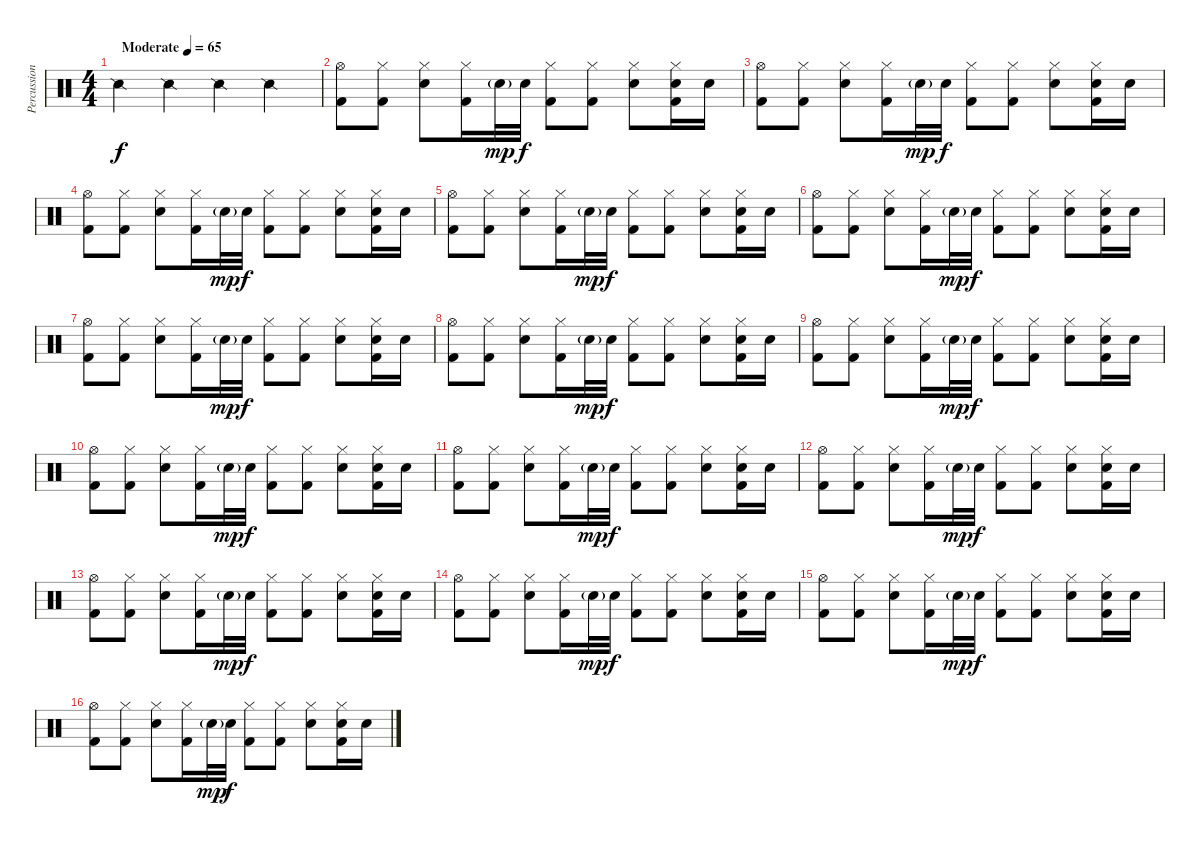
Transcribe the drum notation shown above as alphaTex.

\track ("Percussioni" "Percussion") {instrument percussion}
\staff {score}
\articulation defaults
\ts (4 4)
\tempo (65 "Moderate")
\clef neutral
\ks c "Snare (side stick) 2".4{dy f} "Snare (side stick) 2".4 "Snare (side stick) 2".4 "Snare (side stick) 2".4
|
("Hi-Hat (open)" "Kick (hit) 2").8 ("Hi-Hat (closed)" "Kick (hit) 2").8 ("Electric Snare (hit)" "Hi-Hat (closed)").8 ("Hi-Hat (closed)" "Kick (hit) 2").16 "Electric Snare (hit)"{g}.32{dy mp} "Electric Snare (hit)".32{dy f} ("Kick (hit) 2" "Hi-Hat (closed)").8 ("Hi-Hat (closed)" "Kick (hit) 2").8 ("Electric Snare (hit)" "Hi-Hat (closed)").8 ("Electric Snare (hit)" "Hi-Hat (closed)" "Kick (hit) 2").16 "Electric Snare (hit)".16 |
("Hi-Hat (open)" "Kick (hit) 2").8 ("Hi-Hat (closed)" "Kick (hit) 2").8 ("Electric Snare (hit)" "Hi-Hat (closed)").8 ("Hi-Hat (closed)" "Kick (hit) 2").16 "Electric Snare (hit)"{g}.32{dy mp} "Electric Snare (hit)".32{dy f} ("Kick (hit) 2" "Hi-Hat (closed)").8 ("Hi-Hat (closed)" "Kick (hit) 2").8 ("Electric Snare (hit)" "Hi-Hat (closed)").8 ("Electric Snare (hit)" "Hi-Hat (closed)" "Kick (hit) 2").16 "Electric Snare (hit)".16 |
("Hi-Hat (open)" "Kick (hit) 2").8 ("Hi-Hat (closed)" "Kick (hit) 2").8 ("Electric Snare (hit)" "Hi-Hat (closed)").8 ("Hi-Hat (closed)" "Kick (hit) 2").16 "Electric Snare (hit)"{g}.32{dy mp} "Electric Snare (hit)".32{dy f} ("Kick (hit) 2" "Hi-Hat (closed)").8 ("Hi-Hat (closed)" "Kick (hit) 2").8 ("Electric Snare (hit)" "Hi-Hat (closed)").8 ("Electric Snare (hit)" "Hi-Hat (closed)" "Kick (hit) 2").16 "Electric Snare (hit)".16 |
("Hi-Hat (open)" "Kick (hit) 2").8 ("Hi-Hat (closed)" "Kick (hit) 2").8 ("Electric Snare (hit)" "Hi-Hat (closed)").8 ("Hi-Hat (closed)" "Kick (hit) 2").16 "Electric Snare (hit)"{g}.32{dy mp} "Electric Snare (hit)".32{dy f} ("Kick (hit) 2" "Hi-Hat (closed)").8 ("Hi-Hat (closed)" "Kick (hit) 2").8 ("Electric Snare (hit)" "Hi-Hat (closed)").8 ("Electric Snare (hit)" "Hi-Hat (closed)" "Kick (hit) 2").16 "Electric Snare (hit)".16 |
("Hi-Hat (open)" "Kick (hit) 2").8 ("Hi-Hat (closed)" "Kick (hit) 2").8 ("Electric Snare (hit)" "Hi-Hat (closed)").8 ("Hi-Hat (closed)" "Kick (hit) 2").16 "Electric Snare (hit)"{g}.32{dy mp} "Electric Snare (hit)".32{dy f} ("Kick (hit) 2" "Hi-Hat (closed)").8 ("Hi-Hat (closed)" "Kick (hit) 2").8 ("Electric Snare (hit)" "Hi-Hat (closed)").8 ("Electric Snare (hit)" "Hi-Hat (closed)" "Kick (hit) 2").16 "Electric Snare (hit)".16 |
("Hi-Hat (open)" "Kick (hit) 2").8 ("Hi-Hat (closed)" "Kick (hit) 2").8 ("Electric Snare (hit)" "Hi-Hat (closed)").8 ("Hi-Hat (closed)" "Kick (hit) 2").16 "Electric Snare (hit)"{g}.32{dy mp} "Electric Snare (hit)".32{dy f} ("Kick (hit) 2" "Hi-Hat (closed)").8 ("Hi-Hat (closed)" "Kick (hit) 2").8 ("Electric Snare (hit)" "Hi-Hat (closed)").8 ("Electric Snare (hit)" "Hi-Hat (closed)" "Kick (hit) 2").16 "Electric Snare (hit)".16 |
("Hi-Hat (open)" "Kick (hit) 2").8 ("Hi-Hat (closed)" "Kick (hit) 2").8 ("Electric Snare (hit)" "Hi-Hat (closed)").8 ("Hi-Hat (closed)" "Kick (hit) 2").16 "Electric Snare (hit)"{g}.32{dy mp} "Electric Snare (hit)".32{dy f} ("Kick (hit) 2" "Hi-Hat (closed)").8 ("Hi-Hat (closed)" "Kick (hit) 2").8 ("Electric Snare (hit)" "Hi-Hat (closed)").8 ("Electric Snare (hit)" "Hi-Hat (closed)" "Kick (hit) 2").16 "Electric Snare (hit)".16 |
("Hi-Hat (open)" "Kick (hit) 2").8 ("Hi-Hat (closed)" "Kick (hit) 2").8 ("Electric Snare (hit)" "Hi-Hat (closed)").8 ("Hi-Hat (closed)" "Kick (hit) 2").16 "Electric Snare (hit)"{g}.32{dy mp} "Electric Snare (hit)".32{dy f} ("Kick (hit) 2" "Hi-Hat (closed)").8 ("Hi-Hat (closed)" "Kick (hit) 2").8 ("Electric Snare (hit)" "Hi-Hat (closed)").8 ("Electric Snare (hit)" "Hi-Hat (closed)" "Kick (hit) 2").16 "Electric Snare (hit)".16 |
("Hi-Hat (open)" "Kick (hit) 2").8 ("Hi-Hat (closed)" "Kick (hit) 2").8 ("Electric Snare (hit)" "Hi-Hat (closed)").8 ("Hi-Hat (closed)" "Kick (hit) 2").16 "Electric Snare (hit)"{g}.32{dy mp} "Electric Snare (hit)".32{dy f} ("Kick (hit) 2" "Hi-Hat (closed)").8 ("Hi-Hat (closed)" "Kick (hit) 2").8 ("Electric Snare (hit)" "Hi-Hat (closed)").8 ("Electric Snare (hit)" "Hi-Hat (closed)" "Kick (hit) 2").16 "Electric Snare (hit)".16 |
("Hi-Hat (open)" "Kick (hit) 2").8 ("Hi-Hat (closed)" "Kick (hit) 2").8 ("Electric Snare (hit)" "Hi-Hat (closed)").8 ("Hi-Hat (closed)" "Kick (hit) 2").16 "Electric Snare (hit)"{g}.32{dy mp} "Electric Snare (hit)".32{dy f} ("Kick (hit) 2" "Hi-Hat (closed)").8 ("Hi-Hat (closed)" "Kick (hit) 2").8 ("Electric Snare (hit)" "Hi-Hat (closed)").8 ("Electric Snare (hit)" "Hi-Hat (closed)" "Kick (hit) 2").16 "Electric Snare (hit)".16 |
("Hi-Hat (open)" "Kick (hit) 2").8 ("Hi-Hat (closed)" "Kick (hit) 2").8 ("Electric Snare (hit)" "Hi-Hat (closed)").8 ("Hi-Hat (closed)" "Kick (hit) 2").16 "Electric Snare (hit)"{g}.32{dy mp} "Electric Snare (hit)".32{dy f} ("Kick (hit) 2" "Hi-Hat (closed)").8 ("Hi-Hat (closed)" "Kick (hit) 2").8 ("Electric Snare (hit)" "Hi-Hat (closed)").8 ("Electric Snare (hit)" "Hi-Hat (closed)" "Kick (hit) 2").16 "Electric Snare (hit)".16 |
("Hi-Hat (open)" "Kick (hit) 2").8 ("Hi-Hat (closed)" "Kick (hit) 2").8 ("Electric Snare (hit)" "Hi-Hat (closed)").8 ("Hi-Hat (closed)" "Kick (hit) 2").16 "Electric Snare (hit)"{g}.32{dy mp} "Electric Snare (hit)".32{dy f} ("Kick (hit) 2" "Hi-Hat (closed)").8 ("Hi-Hat (closed)" "Kick (hit) 2").8 ("Electric Snare (hit)" "Hi-Hat (closed)").8 ("Electric Snare (hit)" "Hi-Hat (closed)" "Kick (hit) 2").16 "Electric Snare (hit)".16 |
("Hi-Hat (open)" "Kick (hit) 2").8 ("Hi-Hat (closed)" "Kick (hit) 2").8 ("Electric Snare (hit)" "Hi-Hat (closed)").8 ("Hi-Hat (closed)" "Kick (hit) 2").16 "Electric Snare (hit)"{g}.32{dy mp} "Electric Snare (hit)".32{dy f} ("Kick (hit) 2" "Hi-Hat (closed)").8 ("Hi-Hat (closed)" "Kick (hit) 2").8 ("Electric Snare (hit)" "Hi-Hat (closed)").8 ("Electric Snare (hit)" "Hi-Hat (closed)" "Kick (hit) 2").16 "Electric Snare (hit)".16 |
("Hi-Hat (open)" "Kick (hit) 2").8 ("Hi-Hat (closed)" "Kick (hit) 2").8 ("Electric Snare (hit)" "Hi-Hat (closed)").8 ("Hi-Hat (closed)" "Kick (hit) 2").16 "Electric Snare (hit)"{g}.32{dy mp} "Electric Snare (hit)".32{dy f} ("Kick (hit) 2" "Hi-Hat (closed)").8 ("Hi-Hat (closed)" "Kick (hit) 2").8 ("Electric Snare (hit)" "Hi-Hat (closed)").8 ("Electric Snare (hit)" "Hi-Hat (closed)" "Kick (hit) 2").16 "Electric Snare (hit)".16 |
("Hi-Hat (open)" "Kick (hit) 2").8 ("Hi-Hat (closed)" "Kick (hit) 2").8 ("Electric Snare (hit)" "Hi-Hat (closed)").8 ("Hi-Hat (closed)" "Kick (hit) 2").16 "Electric Snare (hit)"{g}.32{dy mp} "Electric Snare (hit)".32{dy f} ("Kick (hit) 2" "Hi-Hat (closed)").8 ("Hi-Hat (closed)" "Kick (hit) 2").8 ("Electric Snare (hit)" "Hi-Hat (closed)").8 ("Electric Snare (hit)" "Hi-Hat (closed)" "Kick (hit) 2").16 "Electric Snare (hit)".16
